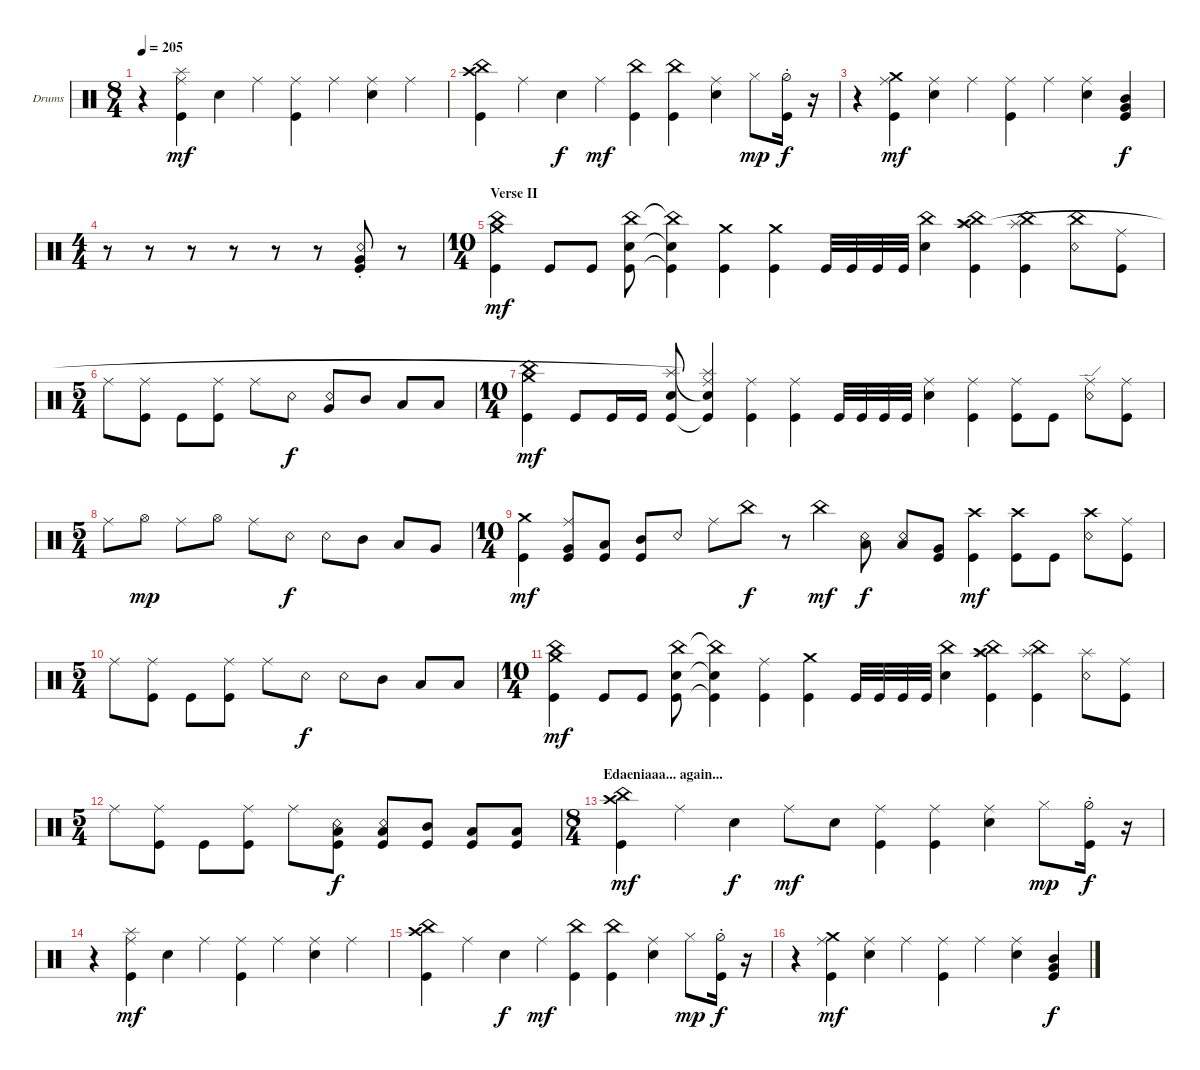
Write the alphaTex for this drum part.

\defaultSystemsLayout 4
\bracketExtendMode groupsimilarinstruments
\firstSystemTrackNameOrientation horizontal
\otherSystemsTrackNameOrientation horizontal
\track ("GordiBuena" "Drums") {instrument percussion}
\staff {score}
\articulation defaults
\ts (8 4)
\tempo 205
\clef neutral
\scale
0.278314
\ks c
r.4{dy f} ("Kick (hit)" "Ride (middle)" "Splash (hit)").4{dy mf} "Snare (hit) 2".4 "Ride (middle)".4 ("Kick (hit)" "Ride (middle)").4 "Ride (middle)".4 ("Snare (hit) 2" "Ride (middle)").4 "Ride (middle)".4 |
\scale
0.321712 ("Kick (hit)" "Crash high (hit)" "China (hit)").4 "Ride (middle)".4 "Snare (hit) 2".4{dy f} "Ride (middle)".4{dy mf} ("Kick (hit)" "China (hit)").4 ("Kick (hit)" "China (hit)").4 ("Snare (hit) 2" "Ride (middle)").4 "Hi-Hat (closed)".8{dy mp} ("Hi-Hat (half)"{st} "Kick (hit)"{st}).16{dy f} r.16 |
r.4 ("Kick (hit)" "Ride (middle)" "Crash medium (hit)").4{dy mf} ("Snare (hit) 2" "Ride (middle)").4 "Ride (middle)".4 ("Kick (hit)" "Ride (middle)").4 "Ride (middle)".4 ("Snare (hit) 2" "Ride (middle)").4 ("Mid Tom (hit)" "Kick (hit)" "Very Low Tom (hit)").4{dy f} |
\ts (4 4)
r.8 r.8 r.8 r.8 r.8 r.8 ("Snare (rim shot)"{st} "Kick (hit)"{st} "Very Low Tom (hit)"{st}).8 r.8 |
\ts (10 4)
\section ("" "Verse II")
("Kick (hit)" "Crash medium (hit)" "China (hit)").4{dy mf} "Kick (hit)".8 "Kick (hit)".8 ("Kick (hit)" "Snare (hit) 2" "China (hit)").8 ("Kick (hit)"{t} "Snare (hit) 2"{t} "China (hit)"{t}).4 ("Kick (hit)" "Crash medium (hit)").4 ("Kick (hit)" "Crash medium (hit)").4 "Kick (hit)".32 "Kick (hit)".32 "Kick (hit)".32 "Kick (hit)".32 ("Snare (hit) 2" "China (hit)").4 ("Kick (hit)" "China (hit)" "Splash (hit)" "Crash high (hit)").4 ("Kick (hit)" "China (hit)" "Splash (hit)").4 ("Snare (rim shot)" "China (hit)").8 ("Kick (hit)" "Ride (middle)").8 |
\ts (5 4)
"Ride (middle)".8 ("Ride (middle)" "Kick (hit)").8 "Kick (hit)".8 ("Ride (middle)" "Kick (hit)").8 "Ride (middle)".8 "Snare (rim shot)".8{dy f} ("Snare (rim shot)" "Very Low Tom (hit)").8 "Mid Tom (hit)".8 "Low Tom (hit)".8 "Low Tom (hit)".8 |
\ts (10 4)
("Kick (hit)" "Crash medium (hit)" "China (hit)").4{dy mf} "Kick (hit)".8 "Kick (hit)".16 "Kick (hit)".16 ("Kick (hit)" "Snare (hit) 2" "Splash (hit)").8 ("Kick (hit)"{t} "Ride (middle)" "Snare (hit) 2"{t} "Splash (hit)"{t}).4 ("Kick (hit)" "Ride (middle)").4 ("Kick (hit)" "Ride (middle)").4 "Kick (hit)".32 "Kick (hit)".32 "Kick (hit)".32 "Kick (hit)".32 ("Snare (hit) 2" "Ride (middle)").4 ("Kick (hit)" "Ride (middle)").4 ("Kick (hit)" "Ride (middle)").8 "Kick (hit)".8 ("Snare (rim shot)" "Ride (edge)").8 ("Kick (hit)" "Ride (middle)").8 |
\ts (5 4)
"Ride (middle)".8 "Hi-Hat (open)".8{dy mp} "Ride (middle)".8 "Hi-Hat (open)".8 "Ride (middle)".8 "Snare (rim shot)".8{dy f} "Snare (rim shot)".8 "Mid Tom (hit)".8 "Low Tom (hit)".8 "Very Low Tom (hit)".8 |
\ts (10 4)
("Kick (hit)" "Crash medium (hit)").4{dy mf} ("Kick (hit)" "Ride (middle)" "Very Low Tom (hit)").8 ("Kick (hit)" "Low Tom (hit)").8 ("Kick (hit)" "Mid Tom (hit)").8 "Snare (rim shot)".8 "Ride (middle)".8 "China (hit)".8{dy f} r.8 "China (hit)".4{dy mf} ("Snare (rim shot)" "Low Tom (hit)").8{dy f} ("Snare (rim shot)" "Low Tom (hit)").8 ("Very Low Tom (hit)" "Kick (hit)").8 ("Kick (hit)" "Crash high (hit)").4{dy mf} ("Kick (hit)" "Crash high (hit)").8 "Kick (hit)".8 ("Snare (rim shot)" "Crash high (hit)").8 ("Kick (hit)" "Ride (middle)").8 |
\ts (5 4)
"Ride (middle)".8 ("Ride (middle)" "Kick (hit)").8 "Kick (hit)".8 ("Ride (middle)" "Kick (hit)").8 "Ride (middle)".8 "Snare (rim shot)".8{dy f} "Snare (rim shot)".8 "Mid Tom (hit)".8 "Low Tom (hit)".8 "Low Tom (hit)".8 |
\ts (10 4)
("Kick (hit)" "Crash medium (hit)" "China (hit)").4{dy mf} "Kick (hit)".8 "Kick (hit)".8 ("Kick (hit)" "Snare (hit) 2" "China (hit)").8 ("Kick (hit)"{t} "Snare (hit) 2"{t} "China (hit)"{t}).4 ("Kick (hit)" "Ride (middle)").4 ("Kick (hit)" "Crash medium (hit)").4 "Kick (hit)".32 "Kick (hit)".32 "Kick (hit)".32 "Kick (hit)".32 ("Snare (hit) 2" "China (hit)").4 ("Kick (hit)" "China (hit)" "Splash (hit)" "Crash high (hit)").4 ("Kick (hit)" "China (hit)" "Splash (hit)").4 ("Snare (rim shot)" "Splash (hit)").8 ("Kick (hit)" "Ride (middle)").8 |
\ts (5 4)
"Ride (middle)".8 ("Ride (middle)" "Kick (hit)").8 "Kick (hit)".8 ("Ride (middle)" "Kick (hit)").8 "Ride (middle)".8 ("Snare (rim shot)" "Low Tom (hit)" "Kick (hit)").8{dy f} ("Snare (rim shot)" "Kick (hit)" "Low Tom (hit)").8 ("Mid Tom (hit)" "Kick (hit)").8 ("Low Tom (hit)" "Kick (hit)").8 ("Low Tom (hit)" "Kick (hit)").8 |
\ts (8 4)
\section ("" "Edaeniaaa... again...")
("Kick (hit)" "Crash high (hit)" "China (hit)").4{dy mf} "Ride (middle)".4 "Snare (hit) 2".4{dy f} "Ride (middle)".8{dy mf} "Snare (hit) 2".8 ("Kick (hit)" "Ride (middle)").4 ("Kick (hit)" "Ride (middle)").4 ("Snare (hit) 2" "Ride (middle)").4 "Hi-Hat (closed)".8{dy mp} ("Hi-Hat (half)"{st} "Kick (hit)"{st}).16{dy f} r.16 |
r.4 ("Kick (hit)" "Ride (middle)" "Splash (hit)").4{dy mf} "Snare (hit) 2".4 "Ride (middle)".4 ("Kick (hit)" "Ride (middle)").4 "Ride (middle)".4 ("Snare (hit) 2" "Ride (middle)").4 "Ride (middle)".4 |
("Kick (hit)" "Crash high (hit)" "China (hit)").4 "Ride (middle)".4 "Snare (hit) 2".4{dy f} "Ride (middle)".4{dy mf} ("Kick (hit)" "China (hit)").4 ("Kick (hit)" "China (hit)").4 ("Snare (hit) 2" "Ride (middle)").4 "Hi-Hat (closed)".8{dy mp} ("Hi-Hat (half)"{st} "Kick (hit)"{st}).16{dy f} r.16 |
r.4 ("Kick (hit)" "Ride (middle)" "Crash medium (hit)").4{dy mf} ("Snare (hit) 2" "Ride (middle)").4 "Ride (middle)".4 ("Kick (hit)" "Ride (middle)").4 "Ride (middle)".4 ("Snare (hit) 2" "Ride (middle)").4 ("Mid Tom (hit)" "Kick (hit)" "Very Low Tom (hit)").4{dy f}
